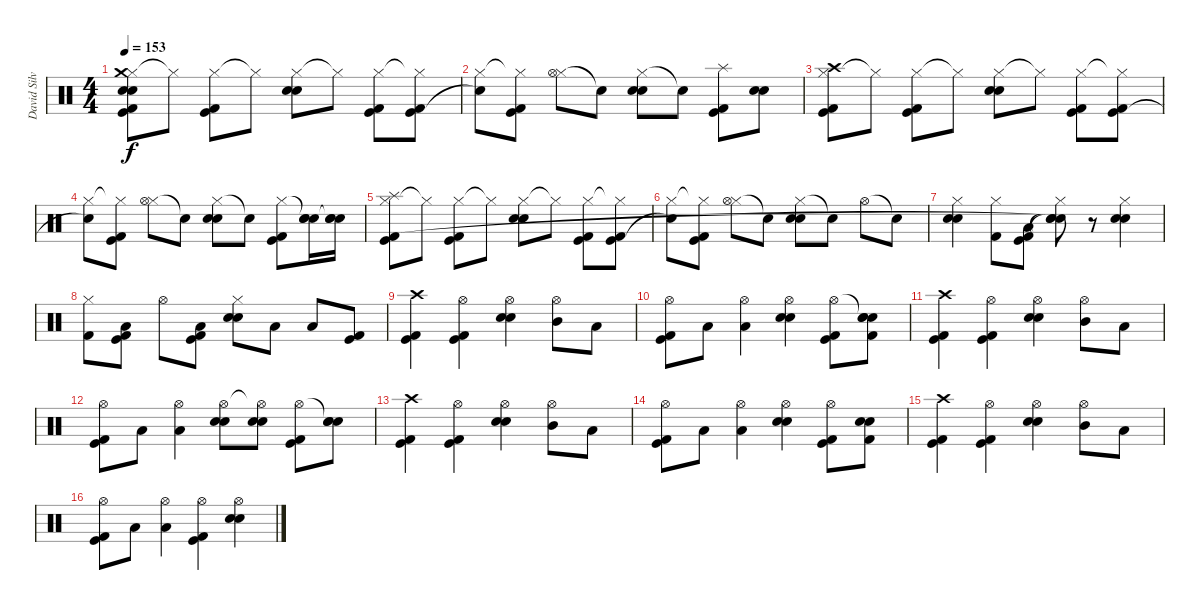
\track ("David Silveria" "David Silv") {instrument percussion}
\staff {score}
\articulation defaults
\ts (4 4)
\tempo 153
\clef neutral
\ks c
("Hi-Hat (closed)" "Kick (hit)" "Crash medium (hit)" "Kick (hit) 2" "Electric Snare (hit)" "Snare (hit) 2").8{dy f} "Hi-Hat (closed)"{t}.8 ("Hi-Hat (closed)" "Kick (hit)" "Kick (hit) 2").8 "Hi-Hat (closed)"{t}.8 ("Hi-Hat (closed)" "Electric Snare (hit)" "Snare (hit) 2").8 "Hi-Hat (closed)"{t}.8 ("Hi-Hat (closed)" "Kick (hit)" "Kick (hit) 2").8 ("Hi-Hat (closed)"{t} "Kick (hit)" "Kick (hit) 2").8 |
("Hi-Hat (closed)" "Snare (hit)"{t}).8 ("Hi-Hat (closed)"{t} "Kick (hit)" "Kick (hit) 2").8 ("Hi-Hat (closed)" "Hi-Hat (open)").8 "Electric Snare (hit)"{t}.8 ("Hi-Hat (closed)" "Electric Snare (hit)" "Snare (hit) 2").8 "Snare (hit)"{t}.8 ("Splash (hit)" "Kick (hit)" "Kick (hit) 2").8 ("Electric Snare (hit)" "Snare (hit) 2").8 |
("Hi-Hat (closed)" "Kick (hit)" "Crash high (hit)" "Kick (hit) 2").8 "Hi-Hat (closed)"{t}.8 ("Hi-Hat (closed)" "Kick (hit)" "Kick (hit) 2").8 "Hi-Hat (closed)"{t}.8 ("Hi-Hat (closed)" "Electric Snare (hit)" "Snare (hit) 2").8 "Hi-Hat (closed)"{t}.8 ("Hi-Hat (closed)" "Kick (hit)" "Kick (hit) 2").8 ("Hi-Hat (closed)"{t} "Kick (hit)" "Kick (hit) 2").8 |
("Hi-Hat (closed)" "Snare (hit)"{t}).8 ("Hi-Hat (closed)"{t} "Kick (hit)" "Kick (hit) 2").8 ("Hi-Hat (closed)" "Hi-Hat (open)").8 "Electric Snare (hit)"{t}.8 ("Hi-Hat (closed)" "Electric Snare (hit)" "Snare (hit) 2").8 "Snare (hit)"{t}.8 ("Hi-Hat (closed)" "Kick (hit)" "Kick (hit) 2").8 ("Snare (hit)"{t} "Electric Snare (hit)" "Snare (hit) 2").16 ("Snare (hit)"{t} "Electric Snare (hit)" "Snare (hit) 2").16 |
("Hi-Hat (closed)" "Kick (hit)" "Splash (hit)" "Kick (hit) 2").8 "Hi-Hat (closed)"{t}.8 ("Hi-Hat (closed)" "Kick (hit)" "Kick (hit) 2").8 "Hi-Hat (closed)"{t}.8 ("Hi-Hat (closed)" "Electric Snare (hit)" "Snare (hit) 2").8 "Hi-Hat (closed)"{t}.8 ("Hi-Hat (closed)" "Kick (hit)" "Kick (hit) 2").8 ("Hi-Hat (closed)"{t} "Kick (hit)" "Kick (hit) 2").8 |
("Hi-Hat (closed)" "Snare (hit)"{t}).8 ("Hi-Hat (closed)"{t} "Kick (hit)" "Kick (hit) 2").8 ("Hi-Hat (closed)" "Hi-Hat (open)").8 "Electric Snare (hit)"{t}.8 ("Hi-Hat (closed)" "Electric Snare (hit)" "Snare (hit) 2").8 "Snare (hit)"{t}.8 "Hi-Hat (open)".8 "Electric Snare (hit)"{t}.8 |
("Hi-Hat (closed)" "Electric Snare (hit)" "Snare (hit) 2").4 ("Hi-Hat (closed)" "Kick (hit) 2").8 ("Low Floor Tom (hit)" "Kick (hit) 2" "Kick (hit)").8 ("Hi-Hat (closed)" "Snare (hit)"{t} "Snare (hit)"{t} "Snare (hit)"{t}).8 r.8 ("Hi-Hat (closed)" "Electric Snare (hit)" "Snare (hit) 2").4 |
("Hi-Hat (closed)" "Kick (hit) 2").8 ("Kick (hit)" "Kick (hit) 2" "Low Floor Tom (hit)").8 "Hi-Hat (open)".8 ("Kick (hit) 2" "Low Floor Tom (hit)" "Kick (hit)").8 ("Hi-Hat (closed)" "Electric Snare (hit)" "Snare (hit) 2").8 "Low Tom (hit)".8 "Low Floor Tom (hit)".8 ("Kick (hit) 2" "Kick (hit)").8 |
("Crash high (hit)" "Kick (hit)" "Kick (hit) 2").4 ("Hi-Hat (open)" "Kick (hit)" "Kick (hit) 2").4 ("Hi-Hat (open)" "Electric Snare (hit)" "Snare (hit) 2").4 ("Hi-Hat (open)" "Mid Tom (hit)").8 "Low Tom (hit)".8 |
("Hi-Hat (open)" "Kick (hit)" "Kick (hit) 2").8 "Low Tom (hit)".8 ("Hi-Hat (open)" "Low Floor Tom (hit)").4 ("Hi-Hat (open)" "Electric Snare (hit)" "Snare (hit) 2").4 ("Hi-Hat (open)" "Kick (hit)" "Kick (hit) 2").8 ("Snare (hit)"{t} "Electric Snare (hit)" "Kick (hit) 2" "Snare (hit) 2").8 |
("Crash high (hit)" "Kick (hit)" "Kick (hit) 2").4 ("Hi-Hat (open)" "Kick (hit)" "Kick (hit) 2").4 ("Hi-Hat (open)" "Electric Snare (hit)" "Snare (hit) 2").4 ("Hi-Hat (open)" "Mid Tom (hit)").8 "Low Tom (hit)".8 |
("Hi-Hat (open)" "Kick (hit)" "Kick (hit) 2").8 "Low Tom (hit)".8 ("Hi-Hat (open)" "Low Floor Tom (hit)").4 ("Hi-Hat (open)" "Electric Snare (hit)" "Snare (hit) 2").8 ("Hi-Hat (open)"{t} "Electric Snare (hit)" "Snare (hit) 2").8 ("Hi-Hat (open)" "Kick (hit)" "Kick (hit) 2").8 ("Snare (hit)"{t} "Electric Snare (hit)" "Snare (hit) 2").8 |
("Crash high (hit)" "Kick (hit)" "Kick (hit) 2").4 ("Hi-Hat (open)" "Kick (hit)" "Kick (hit) 2").4 ("Hi-Hat (open)" "Electric Snare (hit)" "Snare (hit) 2").4 ("Hi-Hat (open)" "Mid Tom (hit)").8 "Low Tom (hit)".8 |
("Hi-Hat (open)" "Kick (hit)" "Kick (hit) 2").8 "Low Tom (hit)".8 ("Hi-Hat (open)" "Low Floor Tom (hit)").4 ("Hi-Hat (open)" "Electric Snare (hit)" "Snare (hit) 2").4 ("Hi-Hat (open)" "Kick (hit)" "Kick (hit) 2").8 ("Electric Snare (hit)" "Kick (hit) 2" "Snare (hit) 2").8 |
("Crash high (hit)" "Kick (hit)" "Kick (hit) 2").4 ("Hi-Hat (open)" "Kick (hit)" "Kick (hit) 2").4 ("Hi-Hat (open)" "Electric Snare (hit)" "Snare (hit) 2").4 ("Hi-Hat (open)" "Mid Tom (hit)").8 "Low Tom (hit)".8 |
("Hi-Hat (open)" "Kick (hit)" "Kick (hit) 2").8 "Low Tom (hit)".8 ("Hi-Hat (open)" "Low Floor Tom (hit)").4 ("Hi-Hat (open)" "Kick (hit)" "Kick (hit) 2").4 ("Hi-Hat (open)" "Electric Snare (hit)" "Snare (hit) 2").4
